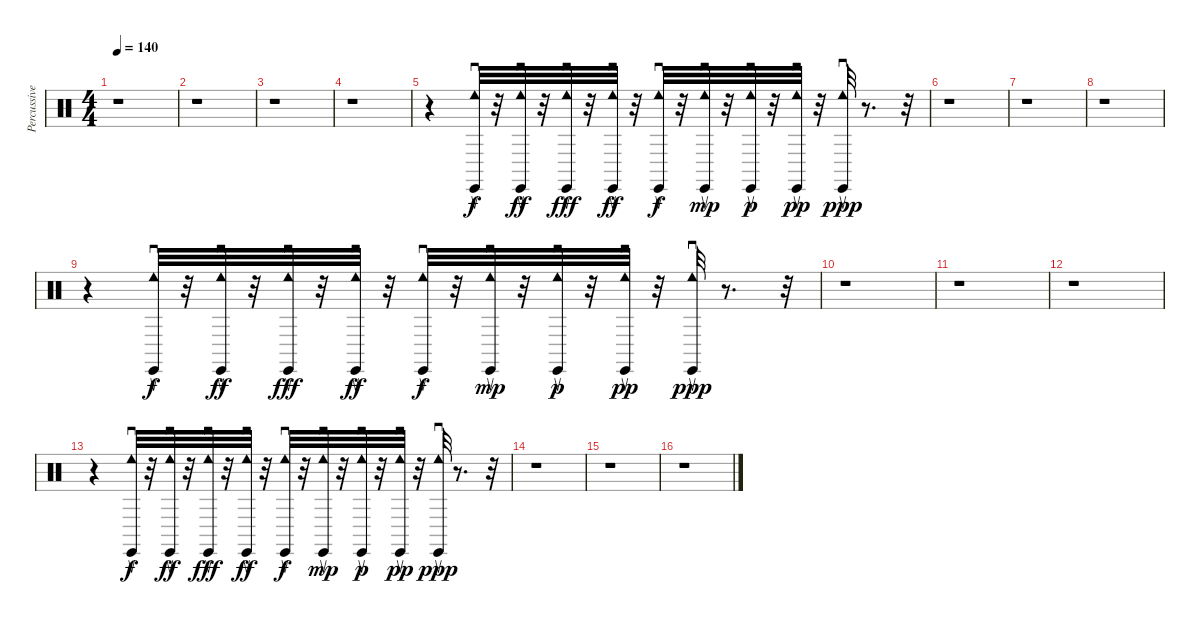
\track ("Percussive Organ" "Percussive") {instrument percussion}
\staff {score}
\articulation defaults
\ts (4 4)
\tempo 140
\clef neutral
\ks c
r.1{dy ppp} |
r.1 |
r.1 |
r.1 |
r.4 ("Cabasa (return)" "Tambourine (roll)").32{dy f} r.32 ("Tambourine (roll)" "Cabasa (return)").32{dy ff} r.32 ("Tambourine (roll)" "Cabasa (return)").32{dy fff} r.32 ("Tambourine (roll)" "Cabasa (return)").32{dy ff} r.32 ("Tambourine (roll)" "Cabasa (return)").32{dy f} r.32 ("Tambourine (roll)" "Cabasa (return)").32{dy mp} r.32 ("Tambourine (roll)" "Cabasa (return)").32{dy p} r.32 ("Tambourine (roll)" "Cabasa (return)").32{dy pp} r.32 ("Cabasa (return)" "Tambourine (roll)").32{dy ppp} r.8{d} r.32 |
r.1 |
r.1 |
r.1 |
r.4 ("Cabasa (return)" "Tambourine (roll)").32{dy f} r.32 ("Tambourine (roll)" "Cabasa (return)").32{dy ff} r.32 ("Tambourine (roll)" "Cabasa (return)").32{dy fff} r.32 ("Tambourine (roll)" "Cabasa (return)").32{dy ff} r.32 ("Tambourine (roll)" "Cabasa (return)").32{dy f} r.32 ("Tambourine (roll)" "Cabasa (return)").32{dy mp} r.32 ("Tambourine (roll)" "Cabasa (return)").32{dy p} r.32 ("Tambourine (roll)" "Cabasa (return)").32{dy pp} r.32 ("Cabasa (return)" "Tambourine (roll)").32{dy ppp} r.8{d} r.32 |
r.1 |
r.1 |
r.1 |
r.4 ("Cabasa (return)" "Tambourine (roll)").32{dy f} r.32 ("Tambourine (roll)" "Cabasa (return)").32{dy ff} r.32 ("Tambourine (roll)" "Cabasa (return)").32{dy fff} r.32 ("Tambourine (roll)" "Cabasa (return)").32{dy ff} r.32 ("Tambourine (roll)" "Cabasa (return)").32{dy f} r.32 ("Tambourine (roll)" "Cabasa (return)").32{dy mp} r.32 ("Tambourine (roll)" "Cabasa (return)").32{dy p} r.32 ("Tambourine (roll)" "Cabasa (return)").32{dy pp} r.32 ("Cabasa (return)" "Tambourine (roll)").32{dy ppp} r.8{d} r.32 |
r.1 |
r.1 |
r.1
